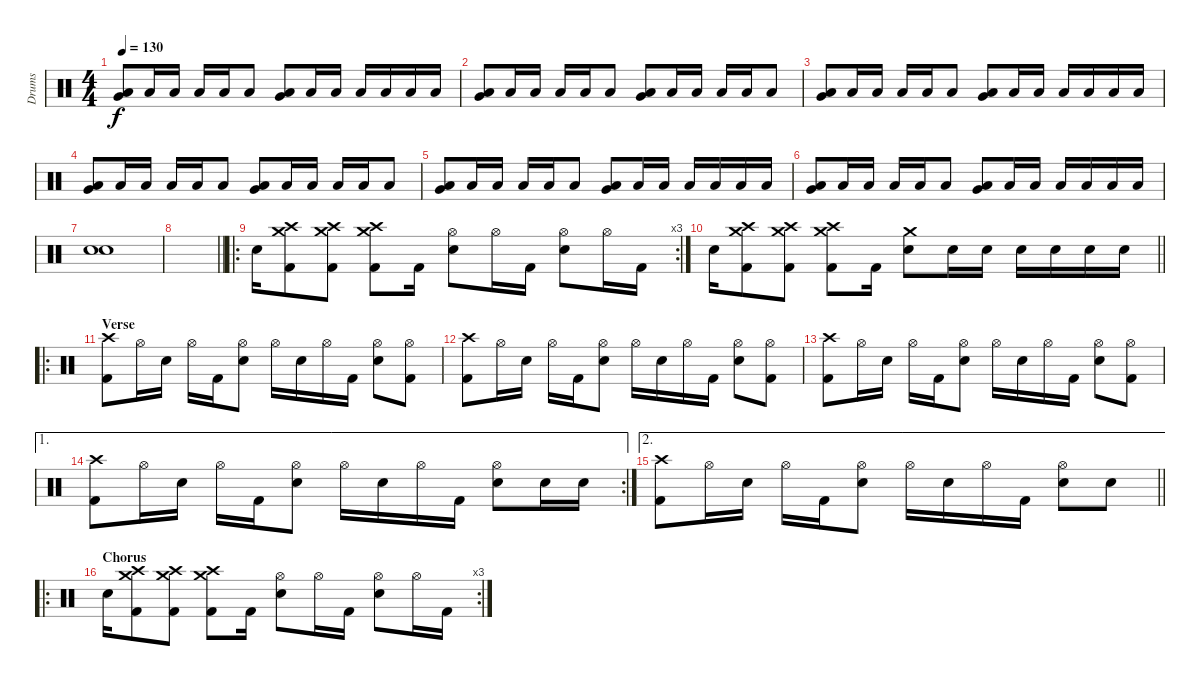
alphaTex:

\track ("Drums" "Drums") {instrument percussion}
\staff {score}
\articulation defaults
\ts (4 4)
\tempo 130
\clef neutral
\ks c
("Very Low Tom (hit)" "Low Floor Tom (hit)").8{dy f} "Low Floor Tom (hit)".16 "Low Tom (hit)".16 "Low Floor Tom (hit)".16 "Low Tom (hit)".16 "Low Floor Tom (hit)".8 ("Very Low Tom (hit)" "Low Floor Tom (hit)").8 "Low Floor Tom (hit)".16 "Low Tom (hit)".16 "Low Floor Tom (hit)".16 "Low Tom (hit)".16 "Low Floor Tom (hit)".16 "Low Tom (hit)".16 |
("Very Low Tom (hit)" "Low Floor Tom (hit)").8 "Low Floor Tom (hit)".16 "Low Tom (hit)".16 "Low Floor Tom (hit)".16 "Low Tom (hit)".16 "Low Floor Tom (hit)".8 ("Very Low Tom (hit)" "Low Floor Tom (hit)").8 "Low Floor Tom (hit)".16 "Low Tom (hit)".16 "Low Floor Tom (hit)".16 "Low Tom (hit)".16 "Low Floor Tom (hit)".8 |
("Very Low Tom (hit)" "Low Floor Tom (hit)").8 "Low Floor Tom (hit)".16 "Low Tom (hit)".16 "Low Floor Tom (hit)".16 "Low Tom (hit)".16 "Low Floor Tom (hit)".8 ("Very Low Tom (hit)" "Low Floor Tom (hit)").8 "Low Floor Tom (hit)".16 "Low Tom (hit)".16 "Low Floor Tom (hit)".16 "Low Tom (hit)".16 "Low Floor Tom (hit)".16 "Low Tom (hit)".16 |
("Very Low Tom (hit)" "Low Floor Tom (hit)").8 "Low Floor Tom (hit)".16 "Low Tom (hit)".16 "Low Floor Tom (hit)".16 "Low Tom (hit)".16 "Low Floor Tom (hit)".8 ("Very Low Tom (hit)" "Low Floor Tom (hit)").8 "Low Floor Tom (hit)".16 "Low Tom (hit)".16 "Low Floor Tom (hit)".16 "Low Tom (hit)".16 "Low Floor Tom (hit)".8 |
("Very Low Tom (hit)" "Low Floor Tom (hit)").8 "Low Floor Tom (hit)".16 "Low Tom (hit)".16 "Low Floor Tom (hit)".16 "Low Tom (hit)".16 "Low Floor Tom (hit)".8 ("Very Low Tom (hit)" "Low Floor Tom (hit)").8 "Low Floor Tom (hit)".16 "Low Tom (hit)".16 "Low Floor Tom (hit)".16 "Low Tom (hit)".16 "Low Floor Tom (hit)".16 "Low Tom (hit)".16 |
("Very Low Tom (hit)" "Low Floor Tom (hit)").8 "Low Floor Tom (hit)".16 "Low Tom (hit)".16 "Low Floor Tom (hit)".16 "Low Tom (hit)".16 "Low Floor Tom (hit)".8 ("Very Low Tom (hit)" "Low Floor Tom (hit)").8 "Low Tom (hit)".16 "Low Tom (hit)".16 "Low Tom (hit)".16 "Low Tom (hit)".16 "Low Tom (hit)".16 "Low Tom (hit)".16 |
("Electric Snare (hit)" "Electric Snare (hit)").1 |
\barLineRight lightlight
|
\ro
\rc 3
\section ("" "")
"Electric Snare (hit)".16 ("Crash high (hit)" "Crash medium (hit)" "Kick (hit) 2").8 ("Crash high (hit)" "Crash medium (hit)" "Kick (hit) 2").8 ("Crash high (hit)" "Crash medium (hit)" "Kick (hit) 2").8 "Kick (hit) 2".16 ("Hi-Hat (open)" "Electric Snare (hit)").8 "Hi-Hat (open)".16 "Kick (hit) 2".16 ("Hi-Hat (open)" "Electric Snare (hit)").8 "Hi-Hat (open)".16 "Kick (hit) 2".16 |
\barLineRight lightlight "Electric Snare (hit)".16
("Crash high (hit)" "Crash medium (hit)" "Kick (hit) 2").8 ("Crash high (hit)" "Crash medium (hit)" "Kick (hit) 2").8 ("Crash high (hit)" "Crash medium (hit)" "Kick (hit) 2").8 "Kick (hit) 2".16 ("Crash medium (hit)" "Electric Snare (hit)").8 "Electric Snare (hit)".16 "Electric Snare (hit)".16 "Electric Snare (hit)".16 "Electric Snare (hit)".16 "Electric Snare (hit)".16 "Electric Snare (hit)".16 |
\ro
\section ("" "Verse")
("Crash high (hit)" "Kick (hit) 2").8 "Hi-Hat (open)".16 "Electric Snare (hit)".16 "Hi-Hat (open)".16 "Kick (hit) 2".16 ("Hi-Hat (open)" "Electric Snare (hit)").8 "Hi-Hat (open)".16 "Electric Snare (hit)".16 "Hi-Hat (open)".16 "Kick (hit) 2".16 ("Hi-Hat (open)" "Electric Snare (hit)").8 ("Hi-Hat (open)" "Kick (hit) 2").8 |
("Crash high (hit)" "Kick (hit) 2").8 "Hi-Hat (open)".16 "Electric Snare (hit)".16 "Hi-Hat (open)".16 "Kick (hit) 2".16 ("Hi-Hat (open)" "Electric Snare (hit)").8 "Hi-Hat (open)".16 "Electric Snare (hit)".16 "Hi-Hat (open)".16 "Kick (hit) 2".16 ("Hi-Hat (open)" "Electric Snare (hit)").8 ("Hi-Hat (open)" "Kick (hit) 2").8 |
("Crash high (hit)" "Kick (hit) 2").8 "Hi-Hat (open)".16 "Electric Snare (hit)".16 "Hi-Hat (open)".16 "Kick (hit) 2".16 ("Hi-Hat (open)" "Electric Snare (hit)").8 "Hi-Hat (open)".16 "Electric Snare (hit)".16 "Hi-Hat (open)".16 "Kick (hit) 2".16 ("Hi-Hat (open)" "Electric Snare (hit)").8 ("Hi-Hat (open)" "Kick (hit) 2").8 |
\ae 1
\rc 2
("Crash high (hit)" "Kick (hit) 2").8 "Hi-Hat (open)".16 "Electric Snare (hit)".16 "Hi-Hat (open)".16 "Kick (hit) 2".16 ("Hi-Hat (open)" "Electric Snare (hit)").8 "Hi-Hat (open)".16 "Electric Snare (hit)".16 "Hi-Hat (open)".16 "Kick (hit) 2".16 ("Hi-Hat (open)" "Electric Snare (hit)").8 "Electric Snare (hit)".16 "Electric Snare (hit)".16 |
\ae 2
\barLineRight lightlight
("Crash high (hit)" "Kick (hit) 2").8 "Hi-Hat (open)".16 "Electric Snare (hit)".16 "Hi-Hat (open)".16 "Kick (hit) 2".16 ("Hi-Hat (open)" "Electric Snare (hit)").8 "Hi-Hat (open)".16 "Electric Snare (hit)".16 "Hi-Hat (open)".16 "Kick (hit) 2".16 ("Hi-Hat (open)" "Electric Snare (hit)").8 "Electric Snare (hit)".8 |
\ro
\rc 3
\section ("" "Chorus")
"Electric Snare (hit)".16 ("Crash high (hit)" "Crash medium (hit)" "Kick (hit) 2").8 ("Crash high (hit)" "Crash medium (hit)" "Kick (hit) 2").8 ("Crash high (hit)" "Crash medium (hit)" "Kick (hit) 2").8 "Kick (hit) 2".16 ("Hi-Hat (open)" "Electric Snare (hit)").8 "Hi-Hat (open)".16 "Kick (hit) 2".16 ("Hi-Hat (open)" "Electric Snare (hit)").8 "Hi-Hat (open)".16 "Kick (hit) 2".16
